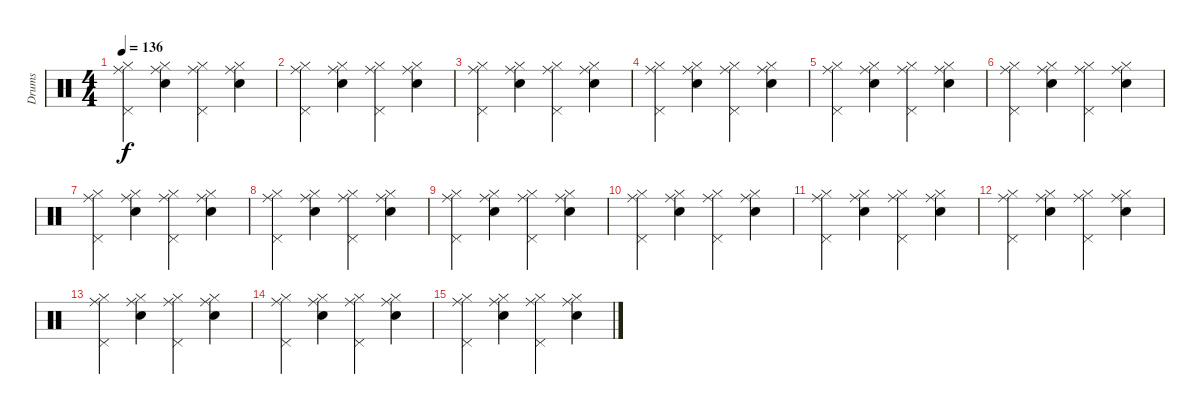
\track ("Drums" "Drums") {instrument percussion}
\staff {score}
\articulation defaults
\ts (4 4)
\tempo 136
\clef neutral
\ks c
("Hi-Hat (closed)" "Ride (middle)" "Pedal Hi-Hat (hit)").4{dy f} ("Hi-Hat (closed)" "Ride (middle)" "Snare (hit) 2").4 ("Hi-Hat (closed)" "Ride (middle)" "Pedal Hi-Hat (hit)").4 ("Hi-Hat (closed)" "Ride (middle)" "Snare (hit) 2").4 |
("Hi-Hat (closed)" "Ride (middle)" "Pedal Hi-Hat (hit)").4 ("Hi-Hat (closed)" "Ride (middle)" "Snare (hit) 2").4 ("Hi-Hat (closed)" "Ride (middle)" "Pedal Hi-Hat (hit)").4 ("Hi-Hat (closed)" "Ride (middle)" "Snare (hit) 2").4 |
("Hi-Hat (closed)" "Ride (middle)" "Pedal Hi-Hat (hit)").4 ("Hi-Hat (closed)" "Ride (middle)" "Snare (hit) 2").4 ("Hi-Hat (closed)" "Ride (middle)" "Pedal Hi-Hat (hit)").4 ("Hi-Hat (closed)" "Ride (middle)" "Snare (hit) 2").4 |
("Hi-Hat (closed)" "Ride (middle)" "Pedal Hi-Hat (hit)").4 ("Hi-Hat (closed)" "Ride (middle)" "Snare (hit) 2").4 ("Hi-Hat (closed)" "Ride (middle)" "Pedal Hi-Hat (hit)").4 ("Hi-Hat (closed)" "Ride (middle)" "Snare (hit) 2").4 |
("Hi-Hat (closed)" "Ride (middle)" "Pedal Hi-Hat (hit)").4 ("Hi-Hat (closed)" "Ride (middle)" "Snare (hit) 2").4 ("Hi-Hat (closed)" "Ride (middle)" "Pedal Hi-Hat (hit)").4 ("Hi-Hat (closed)" "Ride (middle)" "Snare (hit) 2").4 |
("Hi-Hat (closed)" "Ride (middle)" "Pedal Hi-Hat (hit)").4 ("Hi-Hat (closed)" "Ride (middle)" "Snare (hit) 2").4 ("Hi-Hat (closed)" "Ride (middle)" "Pedal Hi-Hat (hit)").4 ("Hi-Hat (closed)" "Ride (middle)" "Snare (hit) 2").4 |
("Hi-Hat (closed)" "Ride (middle)" "Pedal Hi-Hat (hit)").4 ("Hi-Hat (closed)" "Ride (middle)" "Snare (hit) 2").4 ("Hi-Hat (closed)" "Ride (middle)" "Pedal Hi-Hat (hit)").4 ("Hi-Hat (closed)" "Ride (middle)" "Snare (hit) 2").4 |
("Hi-Hat (closed)" "Ride (middle)" "Pedal Hi-Hat (hit)").4 ("Hi-Hat (closed)" "Ride (middle)" "Snare (hit) 2").4 ("Hi-Hat (closed)" "Ride (middle)" "Pedal Hi-Hat (hit)").4 ("Hi-Hat (closed)" "Ride (middle)" "Snare (hit) 2").4 |
("Hi-Hat (closed)" "Ride (middle)" "Pedal Hi-Hat (hit)").4 ("Hi-Hat (closed)" "Ride (middle)" "Snare (hit) 2").4 ("Hi-Hat (closed)" "Ride (middle)" "Pedal Hi-Hat (hit)").4 ("Hi-Hat (closed)" "Ride (middle)" "Snare (hit) 2").4 |
("Hi-Hat (closed)" "Ride (middle)" "Pedal Hi-Hat (hit)").4 ("Hi-Hat (closed)" "Ride (middle)" "Snare (hit) 2").4 ("Hi-Hat (closed)" "Ride (middle)" "Pedal Hi-Hat (hit)").4 ("Hi-Hat (closed)" "Ride (middle)" "Snare (hit) 2").4 |
("Hi-Hat (closed)" "Ride (middle)" "Pedal Hi-Hat (hit)").4 ("Hi-Hat (closed)" "Ride (middle)" "Snare (hit) 2").4 ("Hi-Hat (closed)" "Ride (middle)" "Pedal Hi-Hat (hit)").4 ("Hi-Hat (closed)" "Ride (middle)" "Snare (hit) 2").4 |
("Hi-Hat (closed)" "Ride (middle)" "Pedal Hi-Hat (hit)").4 ("Hi-Hat (closed)" "Ride (middle)" "Snare (hit) 2").4 ("Hi-Hat (closed)" "Ride (middle)" "Pedal Hi-Hat (hit)").4 ("Hi-Hat (closed)" "Ride (middle)" "Snare (hit) 2").4 |
("Hi-Hat (closed)" "Ride (middle)" "Pedal Hi-Hat (hit)").4 ("Hi-Hat (closed)" "Ride (middle)" "Snare (hit) 2").4 ("Hi-Hat (closed)" "Ride (middle)" "Pedal Hi-Hat (hit)").4 ("Hi-Hat (closed)" "Ride (middle)" "Snare (hit) 2").4 |
("Hi-Hat (closed)" "Ride (middle)" "Pedal Hi-Hat (hit)").4 ("Hi-Hat (closed)" "Ride (middle)" "Snare (hit) 2").4 ("Hi-Hat (closed)" "Ride (middle)" "Pedal Hi-Hat (hit)").4 ("Hi-Hat (closed)" "Ride (middle)" "Snare (hit) 2").4 |
("Hi-Hat (closed)" "Ride (middle)" "Pedal Hi-Hat (hit)").4 ("Hi-Hat (closed)" "Ride (middle)" "Snare (hit) 2").4 ("Hi-Hat (closed)" "Ride (middle)" "Pedal Hi-Hat (hit)").4 ("Hi-Hat (closed)" "Ride (middle)" "Snare (hit) 2").4
